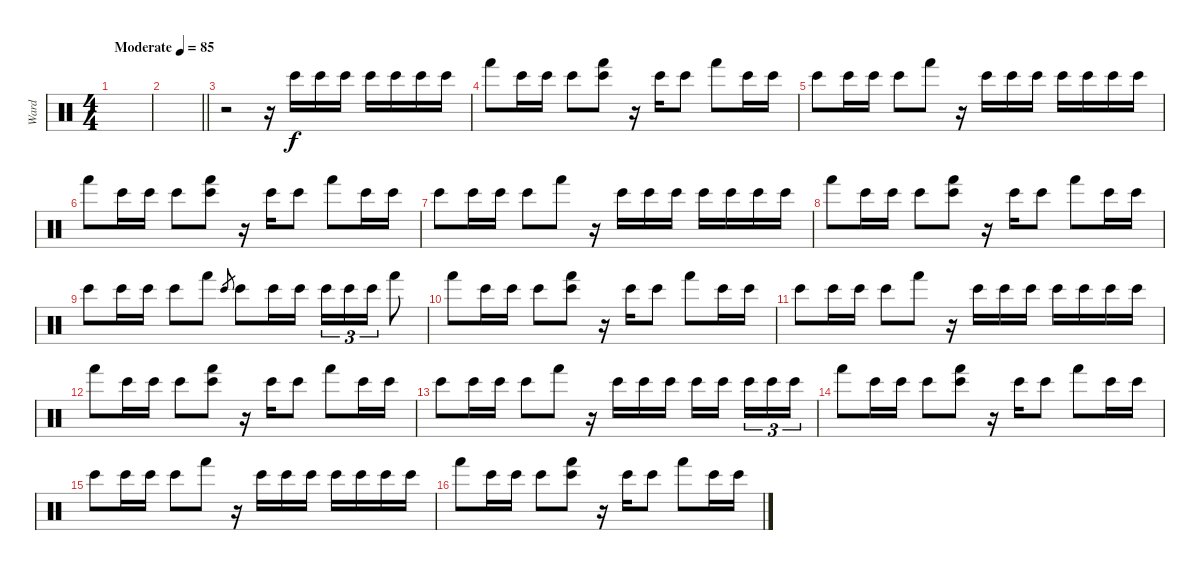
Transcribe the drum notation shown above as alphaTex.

\track ("Ward" "Ward") {instrument percussion}
\staff {score}
\articulation defaults
\ts (4 4)
\tempo (85 "Moderate")
\clef neutral
\ks c
|
\barLineRight lightlight
|
r.2 r.16 "Bongo High (hit)".16{volume 0} "Bongo High (hit)".16{volume 3} "Bongo High (hit)".16{volume 6} "Bongo High (hit)".16{volume 9} "Bongo High (hit)".16{volume 12} "Bongo High (hit)".16{volume 11} "Bongo High (hit)".16 |
"Hand (hit)".8 "Bongo High (hit)".16 "Bongo High (hit)".16 "Bongo High (hit)".8 ("Bongo High (hit)" "Hand (hit)").8 r.16 "Bongo High (hit)".16 "Bongo High (hit)".8 "Hand (hit)".8 "Bongo High (hit)".16 "Bongo High (hit)".16 |
"Bongo High (hit)".8 "Bongo High (hit)".16 "Bongo High (hit)".16 "Bongo High (hit)".8 "Hand (hit)".8 r.16 "Bongo High (hit)".16 "Bongo High (hit)".16 "Bongo High (hit)".16 "Bongo High (hit)".16 "Bongo High (hit)".16 "Bongo High (hit)".16 "Bongo High (hit)".16 |
"Hand (hit)".8 "Bongo High (hit)".16 "Bongo High (hit)".16 "Bongo High (hit)".8 ("Bongo High (hit)" "Hand (hit)").8 r.16 "Bongo High (hit)".16 "Bongo High (hit)".8 "Hand (hit)".8 "Bongo High (hit)".16 "Bongo High (hit)".16 |
"Bongo High (hit)".8 "Bongo High (hit)".16 "Bongo High (hit)".16 "Bongo High (hit)".8 "Hand (hit)".8 r.16 "Bongo High (hit)".16 "Bongo High (hit)".16 "Bongo High (hit)".16 "Bongo High (hit)".16 "Bongo High (hit)".16 "Bongo High (hit)".16 "Bongo High (hit)".16 |
"Hand (hit)".8 "Bongo High (hit)".16 "Bongo High (hit)".16 "Bongo High (hit)".8 ("Bongo High (hit)" "Hand (hit)").8 r.16 "Bongo High (hit)".16 "Bongo High (hit)".8 "Hand (hit)".8 "Bongo High (hit)".16 "Bongo High (hit)".16 |
"Bongo High (hit)".8 "Bongo High (hit)".16 "Bongo High (hit)".16 "Bongo High (hit)".8 "Hand (hit)".8 "Bongo High (hit)".8{gr} "Bongo High (hit)".8 "Bongo High (hit)".16 "Bongo High (hit)".16 "Bongo High (hit)".16{tu (3 2)} "Bongo High (hit)".16{tu (3 2)} "Bongo High (hit)".16{tu (3 2)} "Hand (hit)".8 |
"Hand (hit)".8 "Bongo High (hit)".16 "Bongo High (hit)".16 "Bongo High (hit)".8 ("Bongo High (hit)" "Hand (hit)").8 r.16 "Bongo High (hit)".16 "Bongo High (hit)".8 "Hand (hit)".8 "Bongo High (hit)".16 "Bongo High (hit)".16 |
"Bongo High (hit)".8 "Bongo High (hit)".16 "Bongo High (hit)".16 "Bongo High (hit)".8 "Hand (hit)".8 r.16 "Bongo High (hit)".16 "Bongo High (hit)".16 "Bongo High (hit)".16 "Bongo High (hit)".16 "Bongo High (hit)".16 "Bongo High (hit)".16 "Bongo High (hit)".16 |
"Hand (hit)".8 "Bongo High (hit)".16 "Bongo High (hit)".16 "Bongo High (hit)".8 ("Bongo High (hit)" "Hand (hit)").8 r.16 "Bongo High (hit)".16 "Bongo High (hit)".8 "Hand (hit)".8 "Bongo High (hit)".16 "Bongo High (hit)".16 |
"Bongo High (hit)".8 "Bongo High (hit)".16 "Bongo High (hit)".16 "Bongo High (hit)".8 "Hand (hit)".8 r.16 "Bongo High (hit)".16 "Bongo High (hit)".16 "Bongo High (hit)".16 "Bongo High (hit)".16 "Bongo High (hit)".16{beam splitsecondary} "Bongo High (hit)".16{tu (3 2)} "Bongo High (hit)".16{tu (3 2)} "Bongo High (hit)".16{tu (3 2)} |
"Hand (hit)".8 "Bongo High (hit)".16 "Bongo High (hit)".16 "Bongo High (hit)".8 ("Bongo High (hit)" "Hand (hit)").8 r.16 "Bongo High (hit)".16 "Bongo High (hit)".8 "Hand (hit)".8 "Bongo High (hit)".16 "Bongo High (hit)".16 |
"Bongo High (hit)".8 "Bongo High (hit)".16 "Bongo High (hit)".16 "Bongo High (hit)".8 "Hand (hit)".8 r.16 "Bongo High (hit)".16 "Bongo High (hit)".16 "Bongo High (hit)".16 "Bongo High (hit)".16 "Bongo High (hit)".16 "Bongo High (hit)".16 "Bongo High (hit)".16 |
"Hand (hit)".8 "Bongo High (hit)".16 "Bongo High (hit)".16 "Bongo High (hit)".8 ("Bongo High (hit)" "Hand (hit)").8 r.16 "Bongo High (hit)".16 "Bongo High (hit)".8 "Hand (hit)".8 "Bongo High (hit)".16 "Bongo High (hit)".16
